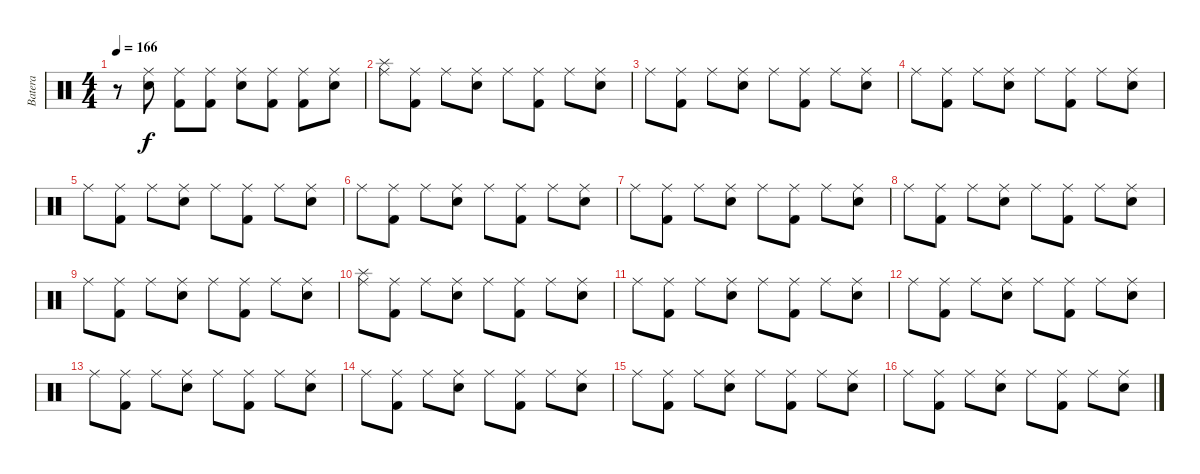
\track ("Batera" "Batera") {instrument percussion}
\staff {score}
\articulation defaults
\ts (4 4)
\tempo 166
\clef neutral
\ks c
r.8{dy f} ("Ride (middle)" "Snare (hit) 2").8 ("Ride (middle)" "Kick (hit) 2").8 ("Ride (middle)" "Kick (hit) 2").8 ("Ride (middle)" "Snare (hit) 2").8 ("Ride (middle)" "Kick (hit) 2").8 ("Ride (middle)" "Kick (hit) 2").8 ("Ride (middle)" "Snare (hit) 2").8 |
("Ride (middle)" "Splash (hit)").8 ("Ride (middle)" "Kick (hit) 2").8 "Ride (middle)".8 ("Ride (middle)" "Snare (hit) 2").8 "Ride (middle)".8 ("Ride (middle)" "Kick (hit) 2").8 "Ride (middle)".8 ("Ride (middle)" "Snare (hit) 2").8 |
"Ride (middle)".8 ("Ride (middle)" "Kick (hit) 2").8 "Ride (middle)".8 ("Ride (middle)" "Snare (hit) 2").8 "Ride (middle)".8 ("Ride (middle)" "Kick (hit) 2").8 "Ride (middle)".8 ("Ride (middle)" "Snare (hit) 2").8 |
"Ride (middle)".8 ("Ride (middle)" "Kick (hit) 2").8 "Ride (middle)".8 ("Ride (middle)" "Snare (hit) 2").8 "Ride (middle)".8 ("Ride (middle)" "Kick (hit) 2").8 "Ride (middle)".8 ("Ride (middle)" "Snare (hit) 2").8 |
"Ride (middle)".8 ("Ride (middle)" "Kick (hit) 2").8 "Ride (middle)".8 ("Ride (middle)" "Snare (hit) 2").8 "Ride (middle)".8 ("Ride (middle)" "Kick (hit) 2").8 "Ride (middle)".8 ("Ride (middle)" "Snare (hit) 2").8 |
"Ride (middle)".8 ("Ride (middle)" "Kick (hit) 2").8 "Ride (middle)".8 ("Ride (middle)" "Snare (hit) 2").8 "Ride (middle)".8 ("Ride (middle)" "Kick (hit) 2").8 "Ride (middle)".8 ("Ride (middle)" "Snare (hit) 2").8 |
"Ride (middle)".8 ("Ride (middle)" "Kick (hit) 2").8 "Ride (middle)".8 ("Ride (middle)" "Snare (hit) 2").8 "Ride (middle)".8 ("Ride (middle)" "Kick (hit) 2").8 "Ride (middle)".8 ("Ride (middle)" "Snare (hit) 2").8 |
"Ride (middle)".8 ("Ride (middle)" "Kick (hit) 2").8 "Ride (middle)".8 ("Ride (middle)" "Snare (hit) 2").8 "Ride (middle)".8 ("Ride (middle)" "Kick (hit) 2").8 "Ride (middle)".8 ("Ride (middle)" "Snare (hit) 2").8 |
"Ride (middle)".8 ("Ride (middle)" "Kick (hit) 2").8 "Ride (middle)".8 ("Ride (middle)" "Snare (hit) 2").8 "Ride (middle)".8 ("Ride (middle)" "Kick (hit) 2").8 "Ride (middle)".8 ("Ride (middle)" "Snare (hit) 2").8 |
("Ride (middle)" "Splash (hit)").8 ("Ride (middle)" "Kick (hit) 2").8 "Ride (middle)".8 ("Ride (middle)" "Snare (hit) 2").8 "Ride (middle)".8 ("Ride (middle)" "Kick (hit) 2").8 "Ride (middle)".8 ("Ride (middle)" "Snare (hit) 2").8 |
"Ride (middle)".8 ("Ride (middle)" "Kick (hit) 2").8 "Ride (middle)".8 ("Ride (middle)" "Snare (hit) 2").8 "Ride (middle)".8 ("Ride (middle)" "Kick (hit) 2").8 "Ride (middle)".8 ("Ride (middle)" "Snare (hit) 2").8 |
"Ride (middle)".8 ("Ride (middle)" "Kick (hit) 2").8 "Ride (middle)".8 ("Ride (middle)" "Snare (hit) 2").8 "Ride (middle)".8 ("Ride (middle)" "Kick (hit) 2").8 "Ride (middle)".8 ("Ride (middle)" "Snare (hit) 2").8 |
"Ride (middle)".8 ("Ride (middle)" "Kick (hit) 2").8 "Ride (middle)".8 ("Ride (middle)" "Snare (hit) 2").8 "Ride (middle)".8 ("Ride (middle)" "Kick (hit) 2").8 "Ride (middle)".8 ("Ride (middle)" "Snare (hit) 2").8 |
"Ride (middle)".8 ("Ride (middle)" "Kick (hit) 2").8 "Ride (middle)".8 ("Ride (middle)" "Snare (hit) 2").8 "Ride (middle)".8 ("Ride (middle)" "Kick (hit) 2").8 "Ride (middle)".8 ("Ride (middle)" "Snare (hit) 2").8 |
"Ride (middle)".8 ("Ride (middle)" "Kick (hit) 2").8 "Ride (middle)".8 ("Ride (middle)" "Snare (hit) 2").8 "Ride (middle)".8 ("Ride (middle)" "Kick (hit) 2").8 "Ride (middle)".8 ("Ride (middle)" "Snare (hit) 2").8 |
"Ride (middle)".8 ("Ride (middle)" "Kick (hit) 2").8 "Ride (middle)".8 ("Ride (middle)" "Snare (hit) 2").8 "Ride (middle)".8 ("Ride (middle)" "Kick (hit) 2").8 "Ride (middle)".8 ("Ride (middle)" "Snare (hit) 2").8
